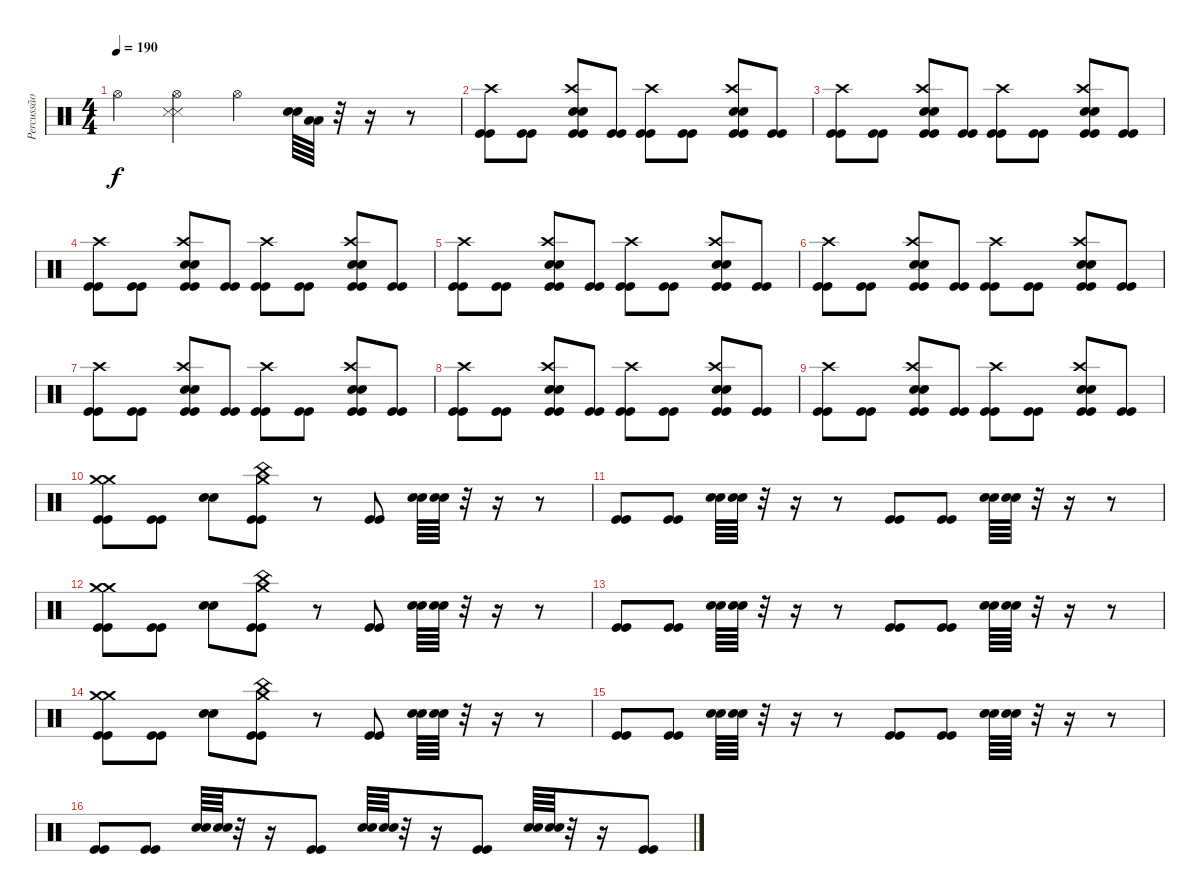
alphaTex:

\track ("Percussão" "Percussão") {instrument percussion}
\staff {score}
\articulation defaults
\ts (4 4)
\tempo 190
\clef neutral
\ks c "Hi-Hat (open)".4{dy f}
("Hi-Hat (open)" "Snare (side stick) 3" "Snare (side stick) 3").4 "Hi-Hat (open)".4 ("Snare (hit) 2" "Snare (hit) 2").64 ("Low Floor Tom (hit)" "Low Floor Tom (hit)").64 r.32 r.16 r.8 |
("Crash high (hit)" "Kick (hit)" "Kick (hit)").8 ("Kick (hit)" "Kick (hit)").8 ("Crash high (hit)" "Snare (hit) 2" "Snare (hit) 2" "Kick (hit)" "Kick (hit)").8 ("Kick (hit)" "Kick (hit)").8 ("Crash high (hit)" "Kick (hit)" "Kick (hit)").8 ("Kick (hit)" "Kick (hit)").8 ("Crash high (hit)" "Snare (hit) 2" "Snare (hit) 2" "Kick (hit)" "Kick (hit)").8 ("Kick (hit)" "Kick (hit)").8 |
("Crash high (hit)" "Kick (hit)" "Kick (hit)").8 ("Kick (hit)" "Kick (hit)").8 ("Crash high (hit)" "Snare (hit) 2" "Snare (hit) 2" "Kick (hit)" "Kick (hit)").8 ("Kick (hit)" "Kick (hit)").8 ("Crash high (hit)" "Kick (hit)" "Kick (hit)").8 ("Kick (hit)" "Kick (hit)").8 ("Crash high (hit)" "Snare (hit) 2" "Snare (hit) 2" "Kick (hit)" "Kick (hit)").8 ("Kick (hit)" "Kick (hit)").8 |
("Crash high (hit)" "Kick (hit)" "Kick (hit)").8 ("Kick (hit)" "Kick (hit)").8 ("Crash high (hit)" "Snare (hit) 2" "Snare (hit) 2" "Kick (hit)" "Kick (hit)").8 ("Kick (hit)" "Kick (hit)").8 ("Crash high (hit)" "Kick (hit)" "Kick (hit)").8 ("Kick (hit)" "Kick (hit)").8 ("Crash high (hit)" "Snare (hit) 2" "Snare (hit) 2" "Kick (hit)" "Kick (hit)").8 ("Kick (hit)" "Kick (hit)").8 |
("Crash high (hit)" "Kick (hit)" "Kick (hit)").8 ("Kick (hit)" "Kick (hit)").8 ("Crash high (hit)" "Snare (hit) 2" "Snare (hit) 2" "Kick (hit)" "Kick (hit)").8 ("Kick (hit)" "Kick (hit)").8 ("Crash high (hit)" "Kick (hit)" "Kick (hit)").8 ("Kick (hit)" "Kick (hit)").8 ("Crash high (hit)" "Snare (hit) 2" "Snare (hit) 2" "Kick (hit)" "Kick (hit)").8 ("Kick (hit)" "Kick (hit)").8 |
("Crash high (hit)" "Kick (hit)" "Kick (hit)").8 ("Kick (hit)" "Kick (hit)").8 ("Crash high (hit)" "Snare (hit) 2" "Snare (hit) 2" "Kick (hit)" "Kick (hit)").8 ("Kick (hit)" "Kick (hit)").8 ("Crash high (hit)" "Kick (hit)" "Kick (hit)").8 ("Kick (hit)" "Kick (hit)").8 ("Crash high (hit)" "Snare (hit) 2" "Snare (hit) 2" "Kick (hit)" "Kick (hit)").8 ("Kick (hit)" "Kick (hit)").8 |
("Crash high (hit)" "Kick (hit)" "Kick (hit)").8 ("Kick (hit)" "Kick (hit)").8 ("Crash high (hit)" "Snare (hit) 2" "Snare (hit) 2" "Kick (hit)" "Kick (hit)").8 ("Kick (hit)" "Kick (hit)").8 ("Crash high (hit)" "Kick (hit)" "Kick (hit)").8 ("Kick (hit)" "Kick (hit)").8 ("Crash high (hit)" "Snare (hit) 2" "Snare (hit) 2" "Kick (hit)" "Kick (hit)").8 ("Kick (hit)" "Kick (hit)").8 |
("Crash high (hit)" "Kick (hit)" "Kick (hit)").8 ("Kick (hit)" "Kick (hit)").8 ("Crash high (hit)" "Snare (hit) 2" "Snare (hit) 2" "Kick (hit)" "Kick (hit)").8 ("Kick (hit)" "Kick (hit)").8 ("Crash high (hit)" "Kick (hit)" "Kick (hit)").8 ("Kick (hit)" "Kick (hit)").8 ("Crash high (hit)" "Snare (hit) 2" "Snare (hit) 2" "Kick (hit)" "Kick (hit)").8 ("Kick (hit)" "Kick (hit)").8 |
("Crash high (hit)" "Kick (hit)" "Kick (hit)").8 ("Kick (hit)" "Kick (hit)").8 ("Crash high (hit)" "Snare (hit) 2" "Snare (hit) 2" "Kick (hit)" "Kick (hit)").8 ("Kick (hit)" "Kick (hit)").8 ("Crash high (hit)" "Kick (hit)" "Kick (hit)").8 ("Kick (hit)" "Kick (hit)").8 ("Crash high (hit)" "Snare (hit) 2" "Snare (hit) 2" "Kick (hit)" "Kick (hit)").8 ("Kick (hit)" "Kick (hit)").8 |
("Crash medium (hit)" "Crash medium (hit)" "Kick (hit)" "Kick (hit)").8 ("Kick (hit)" "Kick (hit)").8 ("Snare (hit) 2" "Snare (hit) 2").8 ("Crash medium (hit)" "China (hit)" "Kick (hit)" "Kick (hit)").8 r.8 ("Kick (hit)" "Kick (hit)").8 ("Snare (hit) 2" "Snare (hit) 2").64 ("Snare (hit) 2" "Snare (hit) 2").64 r.32 r.16 r.8 |
("Kick (hit)" "Kick (hit)").8 ("Kick (hit)" "Kick (hit)").8 ("Snare (hit) 2" "Snare (hit) 2").64 ("Snare (hit) 2" "Snare (hit) 2").64 r.32 r.16 r.8 ("Kick (hit)" "Kick (hit)").8 ("Kick (hit)" "Kick (hit)").8 ("Snare (hit) 2" "Snare (hit) 2").64 ("Snare (hit) 2" "Snare (hit) 2").64 r.32 r.16 r.8 |
("Crash medium (hit)" "Crash medium (hit)" "Kick (hit)" "Kick (hit)").8 ("Kick (hit)" "Kick (hit)").8 ("Snare (hit) 2" "Snare (hit) 2").8 ("Crash medium (hit)" "China (hit)" "Kick (hit)" "Kick (hit)").8 r.8 ("Kick (hit)" "Kick (hit)").8 ("Snare (hit) 2" "Snare (hit) 2").64 ("Snare (hit) 2" "Snare (hit) 2").64 r.32 r.16 r.8 |
("Kick (hit)" "Kick (hit)").8 ("Kick (hit)" "Kick (hit)").8 ("Snare (hit) 2" "Snare (hit) 2").64 ("Snare (hit) 2" "Snare (hit) 2").64 r.32 r.16 r.8 ("Kick (hit)" "Kick (hit)").8 ("Kick (hit)" "Kick (hit)").8 ("Snare (hit) 2" "Snare (hit) 2").64 ("Snare (hit) 2" "Snare (hit) 2").64 r.32 r.16 r.8 |
("Crash medium (hit)" "Crash medium (hit)" "Kick (hit)" "Kick (hit)").8 ("Kick (hit)" "Kick (hit)").8 ("Snare (hit) 2" "Snare (hit) 2").8 ("Crash medium (hit)" "China (hit)" "Kick (hit)" "Kick (hit)").8 r.8 ("Kick (hit)" "Kick (hit)").8 ("Snare (hit) 2" "Snare (hit) 2").64 ("Snare (hit) 2" "Snare (hit) 2").64 r.32 r.16 r.8 |
("Kick (hit)" "Kick (hit)").8 ("Kick (hit)" "Kick (hit)").8 ("Snare (hit) 2" "Snare (hit) 2").64 ("Snare (hit) 2" "Snare (hit) 2").64 r.32 r.16 r.8 ("Kick (hit)" "Kick (hit)").8 ("Kick (hit)" "Kick (hit)").8 ("Snare (hit) 2" "Snare (hit) 2").64 ("Snare (hit) 2" "Snare (hit) 2").64 r.32 r.16 r.8 |
("Kick (hit)" "Kick (hit)").8 ("Kick (hit)" "Kick (hit)").8 ("Snare (hit) 2" "Snare (hit) 2").64 ("Snare (hit) 2" "Snare (hit) 2").64 r.32 r.16 ("Kick (hit)" "Kick (hit)").8 ("Snare (hit) 2" "Snare (hit) 2").64 ("Snare (hit) 2" "Snare (hit) 2").64 r.32 r.16 ("Kick (hit)" "Kick (hit)").8 ("Snare (hit) 2" "Snare (hit) 2").64 ("Snare (hit) 2" "Snare (hit) 2").64 r.32 r.16 ("Kick (hit)" "Kick (hit)").8
